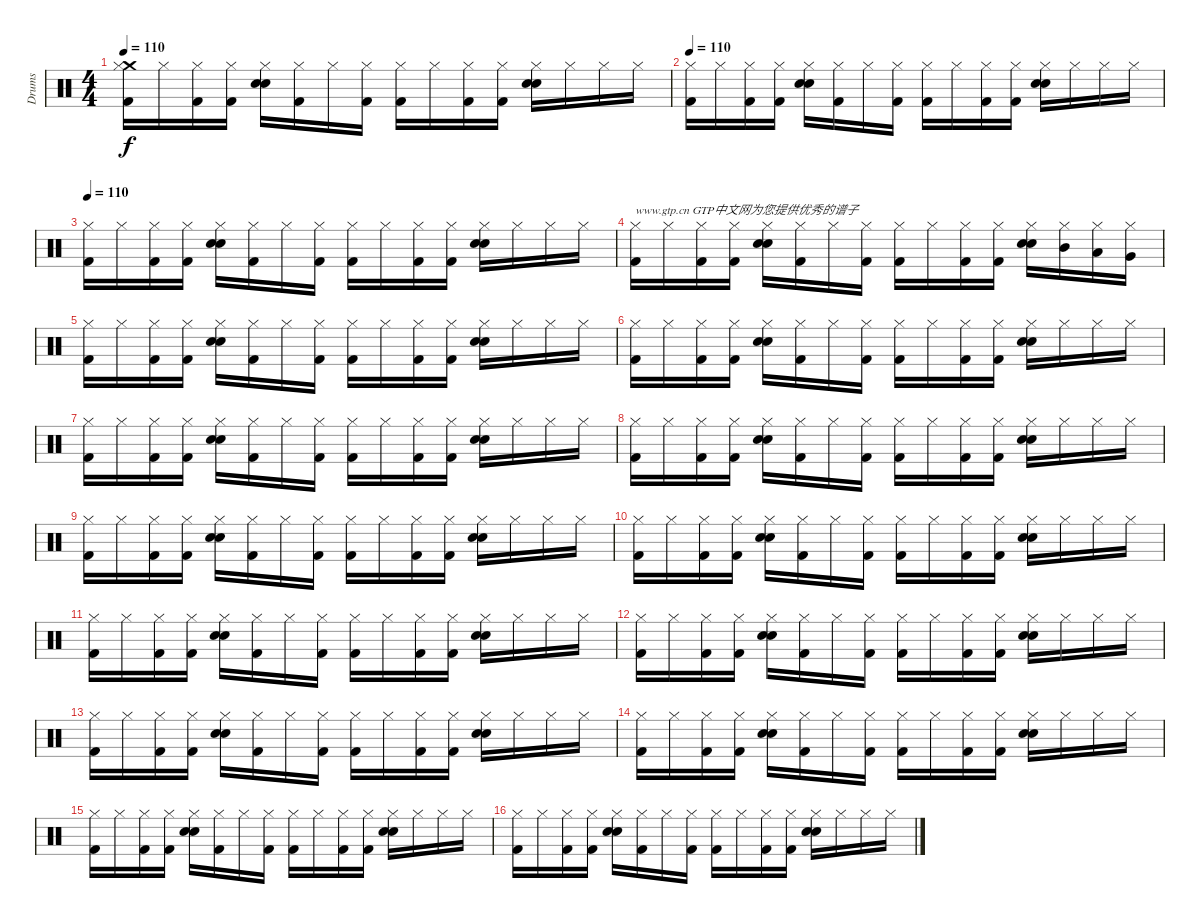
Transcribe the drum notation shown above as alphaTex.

\track ("Drums" "Drums") {instrument percussion}
\staff {score}
\articulation defaults
\ts (4 4)
\tempo 110
\clef neutral
\ks c
("Crash medium (hit)" "Kick (hit) 2" "Hi-Hat (closed)").16{dy f} "Hi-Hat (closed)".16 ("Kick (hit) 2" "Hi-Hat (closed)").16 ("Kick (hit) 2" "Hi-Hat (closed)").16 ("Electric Snare (hit)" "Snare (hit) 2" "Hi-Hat (closed)").16 ("Kick (hit) 2" "Hi-Hat (closed)").16 "Hi-Hat (closed)".16 ("Kick (hit) 2" "Hi-Hat (closed)").16 ("Kick (hit) 2" "Hi-Hat (closed)").16 "Hi-Hat (closed)".16 ("Kick (hit) 2" "Hi-Hat (closed)").16 ("Kick (hit) 2" "Hi-Hat (closed)").16 ("Electric Snare (hit)" "Snare (hit) 2" "Hi-Hat (closed)").16 "Hi-Hat (closed)".16 "Hi-Hat (closed)".16 "Hi-Hat (closed)".16 |
\tempo 110
("Kick (hit) 2" "Hi-Hat (closed)").16 "Hi-Hat (closed)".16 ("Kick (hit) 2" "Hi-Hat (closed)").16 ("Kick (hit) 2" "Hi-Hat (closed)").16 ("Electric Snare (hit)" "Snare (hit) 2" "Hi-Hat (closed)").16 ("Kick (hit) 2" "Hi-Hat (closed)").16 "Hi-Hat (closed)".16 ("Kick (hit) 2" "Hi-Hat (closed)").16 ("Kick (hit) 2" "Hi-Hat (closed)").16 "Hi-Hat (closed)".16 ("Kick (hit) 2" "Hi-Hat (closed)").16 ("Kick (hit) 2" "Hi-Hat (closed)").16 ("Electric Snare (hit)" "Snare (hit) 2" "Hi-Hat (closed)").16 "Hi-Hat (closed)".16 "Hi-Hat (closed)".16 "Hi-Hat (closed)".16 |
\tempo 110
("Hi-Hat (closed)" "Kick (hit) 2").16 "Hi-Hat (closed)".16 ("Hi-Hat (closed)" "Kick (hit) 2").16 ("Hi-Hat (closed)" "Kick (hit) 2").16 ("Hi-Hat (closed)" "Electric Snare (hit)" "Snare (hit) 2").16 ("Hi-Hat (closed)" "Kick (hit) 2").16 "Hi-Hat (closed)".16 ("Hi-Hat (closed)" "Kick (hit) 2").16 ("Hi-Hat (closed)" "Kick (hit) 2").16 "Hi-Hat (closed)".16 ("Hi-Hat (closed)" "Kick (hit) 2").16 ("Hi-Hat (closed)" "Kick (hit) 2").16 ("Hi-Hat (closed)" "Electric Snare (hit)" "Snare (hit) 2").16 "Hi-Hat (closed)".16 "Hi-Hat (closed)".16 "Hi-Hat (closed)".16 |
("Kick (hit) 2" "Hi-Hat (closed)").16{txt "www.gtp.cn GTP中文网为您提供优秀的谱子"} "Hi-Hat (closed)".16 ("Kick (hit) 2" "Hi-Hat (closed)").16 ("Kick (hit) 2" "Hi-Hat (closed)").16 ("Electric Snare (hit)" "Snare (hit) 2" "Hi-Hat (closed)").16 ("Kick (hit) 2" "Hi-Hat (closed)").16 "Hi-Hat (closed)".16 ("Kick (hit) 2" "Hi-Hat (closed)").16 ("Kick (hit) 2" "Hi-Hat (closed)").16 "Hi-Hat (closed)".16 ("Kick (hit) 2" "Hi-Hat (closed)").16 ("Kick (hit) 2" "Hi-Hat (closed)").16 ("Electric Snare (hit)" "Snare (hit) 2" "Hi-Hat (closed)").16 ("Mid Tom (hit)" "Hi-Hat (closed)").16 ("Low Tom (hit)" "Hi-Hat (closed)").16 ("Very Low Tom (hit)" "Hi-Hat (closed)").16 |
("Kick (hit) 2" "Hi-Hat (closed)").16 "Hi-Hat (closed)".16 ("Kick (hit) 2" "Hi-Hat (closed)").16 ("Kick (hit) 2" "Hi-Hat (closed)").16 ("Electric Snare (hit)" "Snare (hit) 2" "Hi-Hat (closed)").16 ("Kick (hit) 2" "Hi-Hat (closed)").16 "Hi-Hat (closed)".16 ("Kick (hit) 2" "Hi-Hat (closed)").16 ("Kick (hit) 2" "Hi-Hat (closed)").16 "Hi-Hat (closed)".16 ("Kick (hit) 2" "Hi-Hat (closed)").16 ("Kick (hit) 2" "Hi-Hat (closed)").16 ("Electric Snare (hit)" "Snare (hit) 2" "Hi-Hat (closed)").16 "Hi-Hat (closed)".16 "Hi-Hat (closed)".16 "Hi-Hat (closed)".16 |
("Hi-Hat (closed)" "Kick (hit) 2").16 "Hi-Hat (closed)".16 ("Hi-Hat (closed)" "Kick (hit) 2").16 ("Hi-Hat (closed)" "Kick (hit) 2").16 ("Hi-Hat (closed)" "Electric Snare (hit)" "Snare (hit) 2").16 ("Hi-Hat (closed)" "Kick (hit) 2").16 "Hi-Hat (closed)".16 ("Hi-Hat (closed)" "Kick (hit) 2").16 ("Hi-Hat (closed)" "Kick (hit) 2").16 "Hi-Hat (closed)".16 ("Hi-Hat (closed)" "Kick (hit) 2").16 ("Hi-Hat (closed)" "Kick (hit) 2").16 ("Hi-Hat (closed)" "Electric Snare (hit)" "Snare (hit) 2").16 "Hi-Hat (closed)".16 "Hi-Hat (closed)".16 "Hi-Hat (closed)".16 |
("Hi-Hat (closed)" "Kick (hit) 2").16 "Hi-Hat (closed)".16 ("Hi-Hat (closed)" "Kick (hit) 2").16 ("Hi-Hat (closed)" "Kick (hit) 2").16 ("Hi-Hat (closed)" "Electric Snare (hit)" "Snare (hit) 2").16 ("Hi-Hat (closed)" "Kick (hit) 2").16 "Hi-Hat (closed)".16 ("Hi-Hat (closed)" "Kick (hit) 2").16 ("Hi-Hat (closed)" "Kick (hit) 2").16 "Hi-Hat (closed)".16 ("Hi-Hat (closed)" "Kick (hit) 2").16 ("Hi-Hat (closed)" "Kick (hit) 2").16 ("Hi-Hat (closed)" "Electric Snare (hit)" "Snare (hit) 2").16 "Hi-Hat (closed)".16 "Hi-Hat (closed)".16 "Hi-Hat (closed)".16 |
("Hi-Hat (closed)" "Kick (hit) 2").16 "Hi-Hat (closed)".16 ("Hi-Hat (closed)" "Kick (hit) 2").16 ("Hi-Hat (closed)" "Kick (hit) 2").16 ("Hi-Hat (closed)" "Electric Snare (hit)" "Snare (hit) 2").16 ("Hi-Hat (closed)" "Kick (hit) 2").16 "Hi-Hat (closed)".16 ("Hi-Hat (closed)" "Kick (hit) 2").16 ("Hi-Hat (closed)" "Kick (hit) 2").16 "Hi-Hat (closed)".16 ("Hi-Hat (closed)" "Kick (hit) 2").16 ("Hi-Hat (closed)" "Kick (hit) 2").16 ("Hi-Hat (closed)" "Electric Snare (hit)" "Snare (hit) 2").16 "Hi-Hat (closed)".16 "Hi-Hat (closed)".16 "Hi-Hat (closed)".16 |
("Hi-Hat (closed)" "Kick (hit) 2").16 "Hi-Hat (closed)".16 ("Hi-Hat (closed)" "Kick (hit) 2").16 ("Hi-Hat (closed)" "Kick (hit) 2").16 ("Hi-Hat (closed)" "Electric Snare (hit)" "Snare (hit) 2").16 ("Hi-Hat (closed)" "Kick (hit) 2").16 "Hi-Hat (closed)".16 ("Hi-Hat (closed)" "Kick (hit) 2").16 ("Hi-Hat (closed)" "Kick (hit) 2").16 "Hi-Hat (closed)".16 ("Hi-Hat (closed)" "Kick (hit) 2").16 ("Hi-Hat (closed)" "Kick (hit) 2").16 ("Hi-Hat (closed)" "Electric Snare (hit)" "Snare (hit) 2").16 "Hi-Hat (closed)".16 "Hi-Hat (closed)".16 "Hi-Hat (closed)".16 |
("Kick (hit) 2" "Hi-Hat (closed)").16 "Hi-Hat (closed)".16 ("Kick (hit) 2" "Hi-Hat (closed)").16 ("Kick (hit) 2" "Hi-Hat (closed)").16 ("Electric Snare (hit)" "Snare (hit) 2" "Hi-Hat (closed)").16 ("Kick (hit) 2" "Hi-Hat (closed)").16 "Hi-Hat (closed)".16 ("Kick (hit) 2" "Hi-Hat (closed)").16 ("Kick (hit) 2" "Hi-Hat (closed)").16 "Hi-Hat (closed)".16 ("Kick (hit) 2" "Hi-Hat (closed)").16 ("Kick (hit) 2" "Hi-Hat (closed)").16 ("Electric Snare (hit)" "Snare (hit) 2" "Hi-Hat (closed)").16 "Hi-Hat (closed)".16 "Hi-Hat (closed)".16 "Hi-Hat (closed)".16 |
("Kick (hit) 2" "Hi-Hat (closed)").16 "Hi-Hat (closed)".16 ("Kick (hit) 2" "Hi-Hat (closed)").16 ("Kick (hit) 2" "Hi-Hat (closed)").16 ("Electric Snare (hit)" "Snare (hit) 2" "Hi-Hat (closed)").16 ("Kick (hit) 2" "Hi-Hat (closed)").16 "Hi-Hat (closed)".16 ("Kick (hit) 2" "Hi-Hat (closed)").16 ("Kick (hit) 2" "Hi-Hat (closed)").16 "Hi-Hat (closed)".16 ("Kick (hit) 2" "Hi-Hat (closed)").16 ("Kick (hit) 2" "Hi-Hat (closed)").16 ("Electric Snare (hit)" "Snare (hit) 2" "Hi-Hat (closed)").16 "Hi-Hat (closed)".16 "Hi-Hat (closed)".16 "Hi-Hat (closed)".16 |
("Hi-Hat (closed)" "Kick (hit) 2").16 "Hi-Hat (closed)".16 ("Hi-Hat (closed)" "Kick (hit) 2").16 ("Hi-Hat (closed)" "Kick (hit) 2").16 ("Hi-Hat (closed)" "Electric Snare (hit)" "Snare (hit) 2").16 ("Hi-Hat (closed)" "Kick (hit) 2").16 "Hi-Hat (closed)".16 ("Hi-Hat (closed)" "Kick (hit) 2").16 ("Hi-Hat (closed)" "Kick (hit) 2").16 "Hi-Hat (closed)".16 ("Hi-Hat (closed)" "Kick (hit) 2").16 ("Hi-Hat (closed)" "Kick (hit) 2").16 ("Hi-Hat (closed)" "Electric Snare (hit)" "Snare (hit) 2").16 "Hi-Hat (closed)".16 "Hi-Hat (closed)".16 "Hi-Hat (closed)".16 |
("Kick (hit) 2" "Hi-Hat (closed)").16 "Hi-Hat (closed)".16 ("Kick (hit) 2" "Hi-Hat (closed)").16 ("Kick (hit) 2" "Hi-Hat (closed)").16 ("Electric Snare (hit)" "Snare (hit) 2" "Hi-Hat (closed)").16 ("Kick (hit) 2" "Hi-Hat (closed)").16 "Hi-Hat (closed)".16 ("Kick (hit) 2" "Hi-Hat (closed)").16 ("Kick (hit) 2" "Hi-Hat (closed)").16 "Hi-Hat (closed)".16 ("Kick (hit) 2" "Hi-Hat (closed)").16 ("Kick (hit) 2" "Hi-Hat (closed)").16 ("Electric Snare (hit)" "Snare (hit) 2" "Hi-Hat (closed)").16 "Hi-Hat (closed)".16 "Hi-Hat (closed)".16 "Hi-Hat (closed)".16 |
("Kick (hit) 2" "Hi-Hat (closed)").16 "Hi-Hat (closed)".16 ("Kick (hit) 2" "Hi-Hat (closed)").16 ("Kick (hit) 2" "Hi-Hat (closed)").16 ("Electric Snare (hit)" "Snare (hit) 2" "Hi-Hat (closed)").16 ("Kick (hit) 2" "Hi-Hat (closed)").16 "Hi-Hat (closed)".16 ("Kick (hit) 2" "Hi-Hat (closed)").16 ("Kick (hit) 2" "Hi-Hat (closed)").16 "Hi-Hat (closed)".16 ("Kick (hit) 2" "Hi-Hat (closed)").16 ("Kick (hit) 2" "Hi-Hat (closed)").16 ("Electric Snare (hit)" "Snare (hit) 2" "Hi-Hat (closed)").16 "Hi-Hat (closed)".16 "Hi-Hat (closed)".16 "Hi-Hat (closed)".16 |
("Hi-Hat (closed)" "Kick (hit) 2").16 "Hi-Hat (closed)".16 ("Hi-Hat (closed)" "Kick (hit) 2").16 ("Hi-Hat (closed)" "Kick (hit) 2").16 ("Hi-Hat (closed)" "Electric Snare (hit)" "Snare (hit) 2").16 ("Hi-Hat (closed)" "Kick (hit) 2").16 "Hi-Hat (closed)".16 ("Hi-Hat (closed)" "Kick (hit) 2").16 ("Hi-Hat (closed)" "Kick (hit) 2").16 "Hi-Hat (closed)".16 ("Hi-Hat (closed)" "Kick (hit) 2").16 ("Hi-Hat (closed)" "Kick (hit) 2").16 ("Hi-Hat (closed)" "Electric Snare (hit)" "Snare (hit) 2").16 "Hi-Hat (closed)".16 "Hi-Hat (closed)".16 "Hi-Hat (closed)".16 |
("Kick (hit) 2" "Hi-Hat (closed)").16 "Hi-Hat (closed)".16 ("Kick (hit) 2" "Hi-Hat (closed)").16 ("Kick (hit) 2" "Hi-Hat (closed)").16 ("Electric Snare (hit)" "Snare (hit) 2" "Hi-Hat (closed)").16 ("Kick (hit) 2" "Hi-Hat (closed)").16 "Hi-Hat (closed)".16 ("Kick (hit) 2" "Hi-Hat (closed)").16 ("Kick (hit) 2" "Hi-Hat (closed)").16 "Hi-Hat (closed)".16 ("Kick (hit) 2" "Hi-Hat (closed)").16 ("Kick (hit) 2" "Hi-Hat (closed)").16 ("Electric Snare (hit)" "Snare (hit) 2" "Hi-Hat (closed)").16 "Hi-Hat (closed)".16 "Hi-Hat (closed)".16 "Hi-Hat (closed)".16
